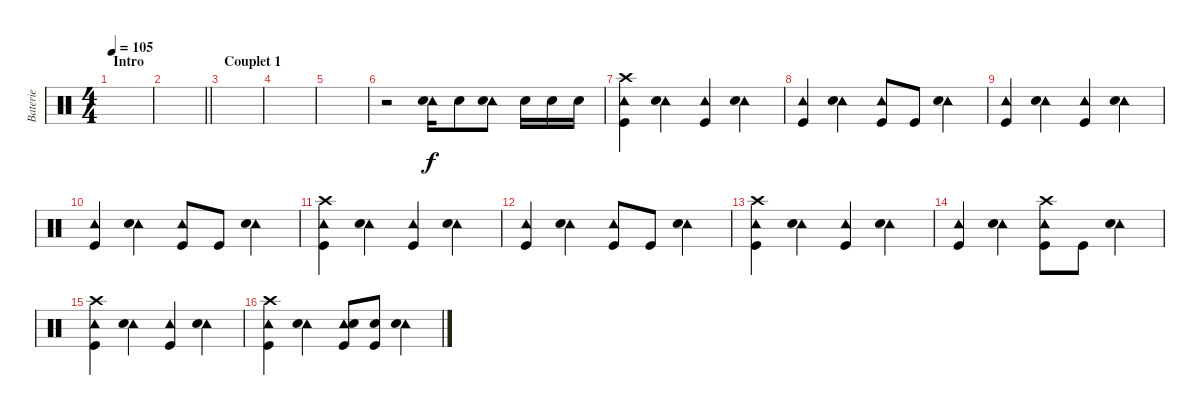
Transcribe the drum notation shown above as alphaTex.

\track ("Baterie" "Baterie") {instrument percussion}
\staff {score}
\articulation defaults
\ts (4 4)
\section ("" "Intro")
\tempo 105
\clef neutral
\ks c
|
\barLineRight lightlight
|
\section ("" "Couplet 1")
|
|
|
r.2 ("Tambourine (hit)" "Snare (hit) 2").16 "Snare (hit) 2".8 ("Tambourine (hit)" "Snare (hit) 2").8 "Snare (hit) 2".16 "Snare (hit) 2".16 "Snare (hit) 2".16 |
("Tambourine (hit)" "Kick (hit)" "Crash high (hit)").4 ("Tambourine (hit)" "Snare (hit) 2").4 ("Tambourine (hit)" "Kick (hit)").4 ("Tambourine (hit)" "Snare (hit) 2").4 |
("Tambourine (hit)" "Kick (hit)").4 ("Tambourine (hit)" "Snare (hit) 2").4 ("Tambourine (hit)" "Kick (hit)").8 "Kick (hit)".8 ("Tambourine (hit)" "Snare (hit) 2").4 |
("Tambourine (hit)" "Kick (hit)").4 ("Tambourine (hit)" "Snare (hit) 2").4 ("Tambourine (hit)" "Kick (hit)").4 ("Tambourine (hit)" "Snare (hit) 2").4 |
("Tambourine (hit)" "Kick (hit)").4 ("Tambourine (hit)" "Snare (hit) 2").4 ("Tambourine (hit)" "Kick (hit)").8 "Kick (hit)".8 ("Tambourine (hit)" "Snare (hit) 2").4 |
("Tambourine (hit)" "Kick (hit)" "Crash high (hit)").4 ("Tambourine (hit)" "Snare (hit) 2").4 ("Tambourine (hit)" "Kick (hit)").4 ("Tambourine (hit)" "Snare (hit) 2").4 |
("Tambourine (hit)" "Kick (hit)").4 ("Tambourine (hit)" "Snare (hit) 2").4 ("Tambourine (hit)" "Kick (hit)").8 "Kick (hit)".8 ("Tambourine (hit)" "Snare (hit) 2").4 |
("Tambourine (hit)" "Kick (hit)" "Crash high (hit)").4 ("Tambourine (hit)" "Snare (hit) 2").4 ("Tambourine (hit)" "Kick (hit)").4 ("Tambourine (hit)" "Snare (hit) 2").4 |
("Tambourine (hit)" "Kick (hit)").4 ("Tambourine (hit)" "Snare (hit) 2").4 ("Tambourine (hit)" "Crash high (hit)" "Kick (hit)").8 "Kick (hit)".8 ("Tambourine (hit)" "Snare (hit) 2").4 |
("Tambourine (hit)" "Kick (hit)" "Crash high (hit)").4 ("Tambourine (hit)" "Snare (hit) 2").4 ("Tambourine (hit)" "Kick (hit)").4 ("Tambourine (hit)" "Snare (hit) 2").4 |
("Tambourine (hit)" "Crash high (hit)" "Kick (hit)").4 ("Tambourine (hit)" "Snare (hit) 2").4 ("Tambourine (hit)" "Kick (hit)" "Snare (hit) 2").8 ("Kick (hit)" "Snare (hit) 2").8 ("Tambourine (hit)" "Snare (hit) 2").4
